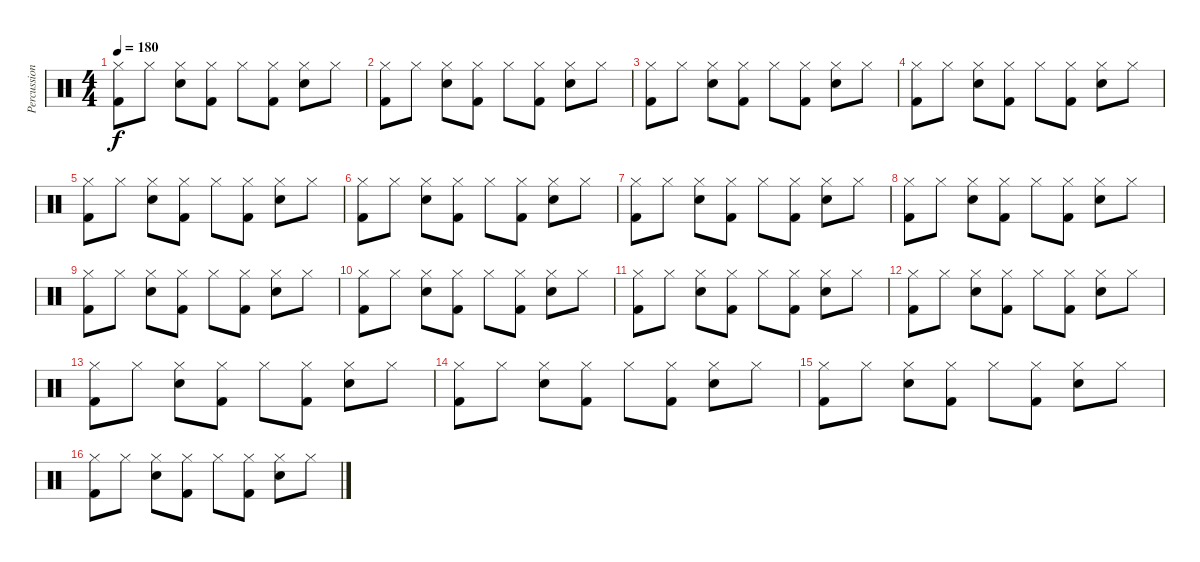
\track ("Percussion" "Percussion") {instrument percussion}
\staff {score}
\articulation defaults
\ts (4 4)
\tempo 180
\clef neutral
\ks c
("Hi-Hat (closed)" "Kick (hit) 2").8{dy f} "Hi-Hat (closed)".8 ("Hi-Hat (closed)" "Snare (hit) 2").8 ("Hi-Hat (closed)" "Kick (hit) 2").8 "Hi-Hat (closed)".8 ("Hi-Hat (closed)" "Kick (hit) 2").8 ("Hi-Hat (closed)" "Snare (hit) 2").8 "Hi-Hat (closed)".8 |
("Hi-Hat (closed)" "Kick (hit) 2").8 "Hi-Hat (closed)".8 ("Hi-Hat (closed)" "Snare (hit) 2").8 ("Hi-Hat (closed)" "Kick (hit) 2").8 "Hi-Hat (closed)".8 ("Hi-Hat (closed)" "Kick (hit) 2").8 ("Hi-Hat (closed)" "Snare (hit) 2").8 "Hi-Hat (closed)".8 |
("Hi-Hat (closed)" "Kick (hit) 2").8 "Hi-Hat (closed)".8 ("Hi-Hat (closed)" "Snare (hit) 2").8 ("Hi-Hat (closed)" "Kick (hit) 2").8 "Hi-Hat (closed)".8 ("Hi-Hat (closed)" "Kick (hit) 2").8 ("Hi-Hat (closed)" "Snare (hit) 2").8 "Hi-Hat (closed)".8 |
("Hi-Hat (closed)" "Kick (hit) 2").8 "Hi-Hat (closed)".8 ("Hi-Hat (closed)" "Snare (hit) 2").8 ("Hi-Hat (closed)" "Kick (hit) 2").8 "Hi-Hat (closed)".8 ("Hi-Hat (closed)" "Kick (hit) 2").8 ("Hi-Hat (closed)" "Snare (hit) 2").8 "Hi-Hat (closed)".8 |
("Hi-Hat (closed)" "Kick (hit) 2").8 "Hi-Hat (closed)".8 ("Hi-Hat (closed)" "Snare (hit) 2").8 ("Hi-Hat (closed)" "Kick (hit) 2").8 "Hi-Hat (closed)".8 ("Hi-Hat (closed)" "Kick (hit) 2").8 ("Hi-Hat (closed)" "Snare (hit) 2").8 "Hi-Hat (closed)".8 |
("Hi-Hat (closed)" "Kick (hit) 2").8 "Hi-Hat (closed)".8 ("Hi-Hat (closed)" "Snare (hit) 2").8 ("Hi-Hat (closed)" "Kick (hit) 2").8 "Hi-Hat (closed)".8 ("Hi-Hat (closed)" "Kick (hit) 2").8 ("Hi-Hat (closed)" "Snare (hit) 2").8 "Hi-Hat (closed)".8 |
("Hi-Hat (closed)" "Kick (hit) 2").8 "Hi-Hat (closed)".8 ("Hi-Hat (closed)" "Snare (hit) 2").8 ("Hi-Hat (closed)" "Kick (hit) 2").8 "Hi-Hat (closed)".8 ("Hi-Hat (closed)" "Kick (hit) 2").8 ("Hi-Hat (closed)" "Snare (hit) 2").8 "Hi-Hat (closed)".8 |
("Hi-Hat (closed)" "Kick (hit) 2").8 "Hi-Hat (closed)".8 ("Hi-Hat (closed)" "Snare (hit) 2").8 ("Hi-Hat (closed)" "Kick (hit) 2").8 "Hi-Hat (closed)".8 ("Hi-Hat (closed)" "Kick (hit) 2").8 ("Hi-Hat (closed)" "Snare (hit) 2").8 "Hi-Hat (closed)".8 |
("Hi-Hat (closed)" "Kick (hit) 2").8 "Hi-Hat (closed)".8 ("Hi-Hat (closed)" "Snare (hit) 2").8 ("Hi-Hat (closed)" "Kick (hit) 2").8 "Hi-Hat (closed)".8 ("Hi-Hat (closed)" "Kick (hit) 2").8 ("Hi-Hat (closed)" "Snare (hit) 2").8 "Hi-Hat (closed)".8 |
("Hi-Hat (closed)" "Kick (hit) 2").8 "Hi-Hat (closed)".8 ("Hi-Hat (closed)" "Snare (hit) 2").8 ("Hi-Hat (closed)" "Kick (hit) 2").8 "Hi-Hat (closed)".8 ("Hi-Hat (closed)" "Kick (hit) 2").8 ("Hi-Hat (closed)" "Snare (hit) 2").8 "Hi-Hat (closed)".8 |
("Hi-Hat (closed)" "Kick (hit) 2").8 "Hi-Hat (closed)".8 ("Hi-Hat (closed)" "Snare (hit) 2").8 ("Hi-Hat (closed)" "Kick (hit) 2").8 "Hi-Hat (closed)".8 ("Hi-Hat (closed)" "Kick (hit) 2").8 ("Hi-Hat (closed)" "Snare (hit) 2").8 "Hi-Hat (closed)".8 |
("Hi-Hat (closed)" "Kick (hit) 2").8 "Hi-Hat (closed)".8 ("Hi-Hat (closed)" "Snare (hit) 2").8 ("Hi-Hat (closed)" "Kick (hit) 2").8 "Hi-Hat (closed)".8 ("Hi-Hat (closed)" "Kick (hit) 2").8 ("Hi-Hat (closed)" "Snare (hit) 2").8 "Hi-Hat (closed)".8 |
("Hi-Hat (closed)" "Kick (hit) 2").8 "Hi-Hat (closed)".8 ("Hi-Hat (closed)" "Snare (hit) 2").8 ("Hi-Hat (closed)" "Kick (hit) 2").8 "Hi-Hat (closed)".8 ("Hi-Hat (closed)" "Kick (hit) 2").8 ("Hi-Hat (closed)" "Snare (hit) 2").8 "Hi-Hat (closed)".8 |
("Hi-Hat (closed)" "Kick (hit) 2").8 "Hi-Hat (closed)".8 ("Hi-Hat (closed)" "Snare (hit) 2").8 ("Hi-Hat (closed)" "Kick (hit) 2").8 "Hi-Hat (closed)".8 ("Hi-Hat (closed)" "Kick (hit) 2").8 ("Hi-Hat (closed)" "Snare (hit) 2").8 "Hi-Hat (closed)".8 |
("Hi-Hat (closed)" "Kick (hit) 2").8 "Hi-Hat (closed)".8 ("Hi-Hat (closed)" "Snare (hit) 2").8 ("Hi-Hat (closed)" "Kick (hit) 2").8 "Hi-Hat (closed)".8 ("Hi-Hat (closed)" "Kick (hit) 2").8 ("Hi-Hat (closed)" "Snare (hit) 2").8 "Hi-Hat (closed)".8 |
("Hi-Hat (closed)" "Kick (hit) 2").8 "Hi-Hat (closed)".8 ("Hi-Hat (closed)" "Snare (hit) 2").8 ("Hi-Hat (closed)" "Kick (hit) 2").8 "Hi-Hat (closed)".8 ("Hi-Hat (closed)" "Kick (hit) 2").8 ("Hi-Hat (closed)" "Snare (hit) 2").8 "Hi-Hat (closed)".8
